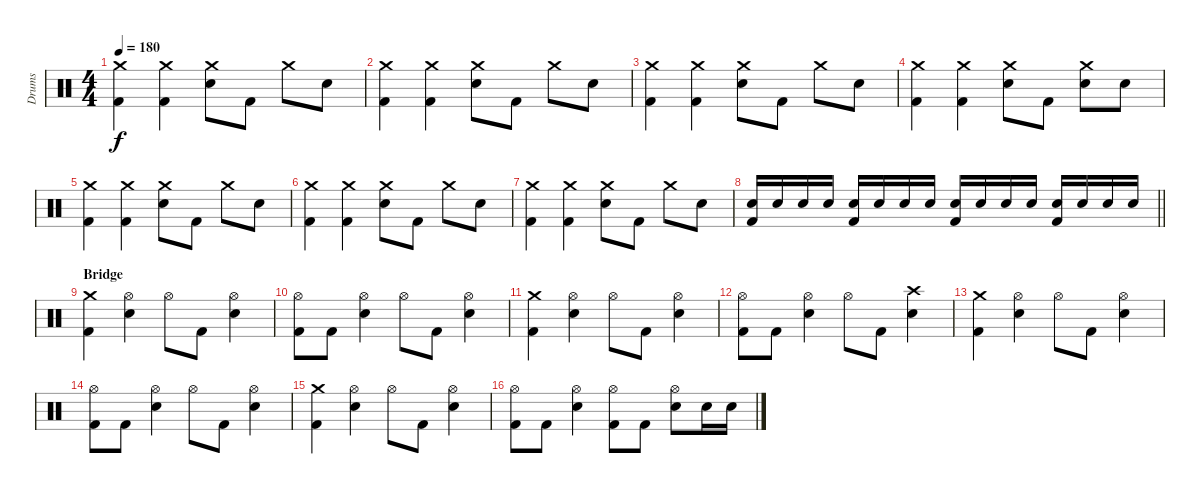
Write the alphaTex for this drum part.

\track ("Drums" "Drums") {instrument percussion}
\staff {score}
\articulation defaults
\ts (4 4)
\tempo 180
\clef neutral
\ks c
("Crash medium (hit)" "Kick (hit) 2").4{dy f} ("Crash medium (hit)" "Kick (hit) 2").4 ("Crash medium (hit)" "Electric Snare (hit)").8 "Kick (hit) 2".8 "Crash medium (hit)".8 "Electric Snare (hit)".8 |
("Crash medium (hit)" "Kick (hit) 2").4 ("Crash medium (hit)" "Kick (hit) 2").4 ("Crash medium (hit)" "Electric Snare (hit)").8 "Kick (hit) 2".8 "Crash medium (hit)".8 "Electric Snare (hit)".8 |
("Crash medium (hit)" "Kick (hit) 2").4 ("Crash medium (hit)" "Kick (hit) 2").4 ("Crash medium (hit)" "Electric Snare (hit)").8 "Kick (hit) 2".8 "Crash medium (hit)".8 "Electric Snare (hit)".8 |
("Crash medium (hit)" "Kick (hit) 2").4 ("Crash medium (hit)" "Kick (hit) 2").4 ("Crash medium (hit)" "Electric Snare (hit)").8 "Kick (hit) 2".8 ("Crash medium (hit)" "Electric Snare (hit)").8 "Electric Snare (hit)".8 |
("Crash medium (hit)" "Kick (hit) 2").4 ("Crash medium (hit)" "Kick (hit) 2").4 ("Crash medium (hit)" "Electric Snare (hit)").8 "Kick (hit) 2".8 "Crash medium (hit)".8 "Electric Snare (hit)".8 |
("Crash medium (hit)" "Kick (hit) 2").4 ("Crash medium (hit)" "Kick (hit) 2").4 ("Crash medium (hit)" "Electric Snare (hit)").8 "Kick (hit) 2".8 "Crash medium (hit)".8 "Electric Snare (hit)".8 |
("Crash medium (hit)" "Kick (hit) 2").4 ("Crash medium (hit)" "Kick (hit) 2").4 ("Crash medium (hit)" "Electric Snare (hit)").8 "Kick (hit) 2".8 "Crash medium (hit)".8 "Electric Snare (hit)".8 |
\barLineRight lightlight
("Electric Snare (hit)" "Kick (hit) 2").16 "Electric Snare (hit)".16 "Electric Snare (hit)".16 "Electric Snare (hit)".16 ("Electric Snare (hit)" "Kick (hit) 2").16 "Electric Snare (hit)".16 "Electric Snare (hit)".16 "Electric Snare (hit)".16 ("Electric Snare (hit)" "Kick (hit) 2").16 "Electric Snare (hit)".16 "Electric Snare (hit)".16 "Electric Snare (hit)".16 ("Electric Snare (hit)" "Kick (hit) 2").16 "Electric Snare (hit)".16 "Electric Snare (hit)".16 "Electric Snare (hit)".16 |
\section ("" "Bridge")
("Crash medium (hit)" "Kick (hit) 2").4 ("Hi-Hat (open)" "Electric Snare (hit)").4 "Hi-Hat (open)".8 "Kick (hit) 2".8 ("Hi-Hat (open)" "Electric Snare (hit)").4 |
("Hi-Hat (open)" "Kick (hit) 2").8 "Kick (hit) 2".8 ("Hi-Hat (open)" "Electric Snare (hit)").4 "Hi-Hat (open)".8 "Kick (hit) 2".8 ("Hi-Hat (open)" "Electric Snare (hit)").4 |
("Crash medium (hit)" "Kick (hit) 2").4 ("Hi-Hat (open)" "Electric Snare (hit)").4 "Hi-Hat (open)".8 "Kick (hit) 2".8 ("Hi-Hat (open)" "Electric Snare (hit)").4 |
("Hi-Hat (open)" "Kick (hit) 2").8 "Kick (hit) 2".8 ("Hi-Hat (open)" "Electric Snare (hit)").4 "Hi-Hat (open)".8 "Kick (hit) 2".8 ("Crash high (hit)" "Electric Snare (hit)").4 |
("Crash medium (hit)" "Kick (hit) 2").4 ("Hi-Hat (open)" "Electric Snare (hit)").4 "Hi-Hat (open)".8 "Kick (hit) 2".8 ("Hi-Hat (open)" "Electric Snare (hit)").4 |
("Hi-Hat (open)" "Kick (hit) 2").8 "Kick (hit) 2".8 ("Hi-Hat (open)" "Electric Snare (hit)").4 "Hi-Hat (open)".8 "Kick (hit) 2".8 ("Hi-Hat (open)" "Electric Snare (hit)").4 |
("Crash medium (hit)" "Kick (hit) 2").4 ("Hi-Hat (open)" "Electric Snare (hit)").4 "Hi-Hat (open)".8 "Kick (hit) 2".8 ("Hi-Hat (open)" "Electric Snare (hit)").4 |
("Hi-Hat (open)" "Kick (hit) 2").8 "Kick (hit) 2".8 ("Hi-Hat (open)" "Electric Snare (hit)").4 ("Hi-Hat (open)" "Kick (hit) 2").8 "Kick (hit) 2".8 ("Hi-Hat (open)" "Electric Snare (hit)").8 "Electric Snare (hit)".16 "Electric Snare (hit)".16
